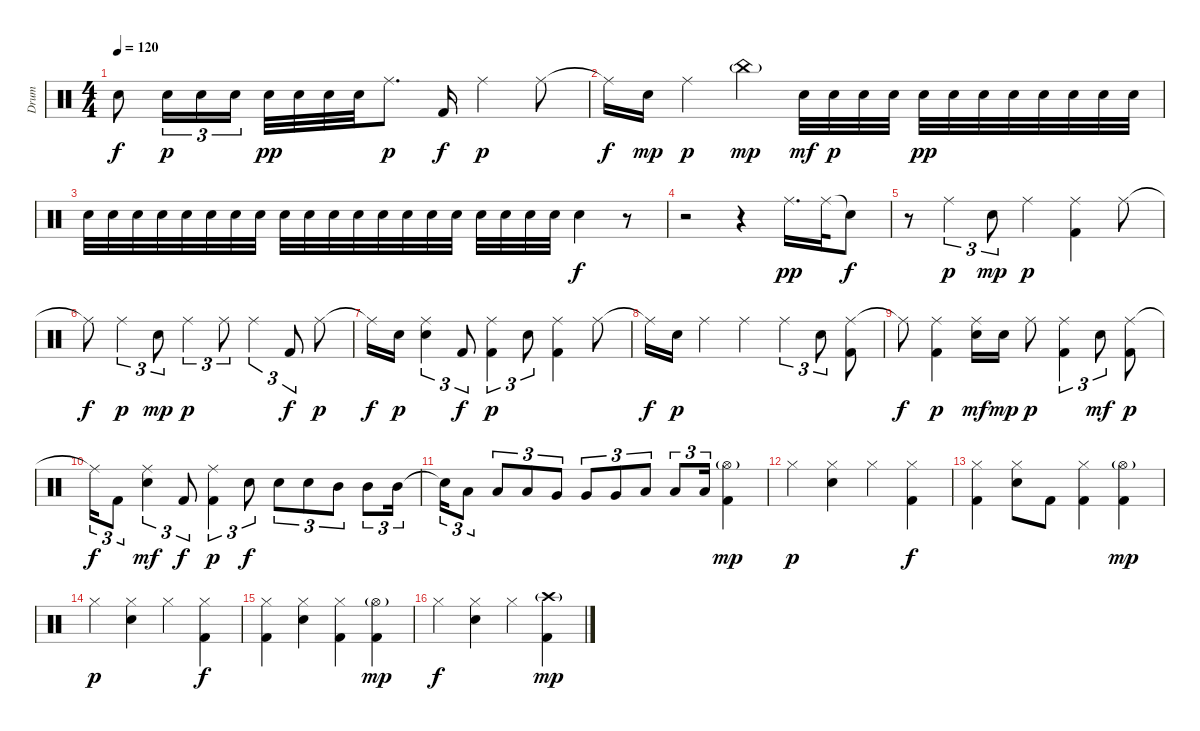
\track ("Drum" "Drum") {instrument percussion}
\staff {score}
\articulation defaults
\ts (4 4)
\tempo 120
\clef neutral
\ks c "Snare (hit)"{t}.8{dy f} "Electric Snare (hit)".16{tu (3 2) dy p} "Electric Snare (hit)".16{tu (3 2)} "Electric Snare (hit)".16{tu (3 2)} "Electric Snare (hit)".32{dy pp} "Electric Snare (hit)".32 "Electric Snare (hit)".32 "Electric Snare (hit)".32 "Ride (middle)".8{d dy p} "Kick (hit) 2".16{dy f} "Ride (middle)".4{dy p} "Ride (middle)".8
|
"Ride (middle)"{t}.16{dy f} "Electric Snare (hit)".16{dy mp} "Ride (middle)".4{dy p} "China (hit)"{g}.4{dy mp} "Electric Snare (hit)".32{dy mf} "Electric Snare (hit)".32{dy p} "Electric Snare (hit)".32 "Electric Snare (hit)".32 "Electric Snare (hit)".32{dy pp} "Electric Snare (hit)".32 "Electric Snare (hit)".32 "Electric Snare (hit)".32 "Electric Snare (hit)".32 "Electric Snare (hit)".32 "Electric Snare (hit)".32 "Electric Snare (hit)".32 |
"Electric Snare (hit)".32 "Electric Snare (hit)".32 "Electric Snare (hit)".32 "Electric Snare (hit)".32 "Electric Snare (hit)".32 "Electric Snare (hit)".32 "Electric Snare (hit)".32 "Electric Snare (hit)".32 "Electric Snare (hit)".32 "Electric Snare (hit)".32 "Electric Snare (hit)".32 "Electric Snare (hit)".32 "Electric Snare (hit)".32 "Electric Snare (hit)".32 "Electric Snare (hit)".32 "Electric Snare (hit)".32 "Electric Snare (hit)".32 "Electric Snare (hit)".32 "Electric Snare (hit)".32 "Electric Snare (hit)".32 "Electric Snare (hit)".4{dy f} r.8 |
r.2 r.4 "Ride (middle)".16{d dy pp} "Ride (middle)".32 "Snare (hit)"{t}.8{dy f} |
r.8 "Ride (middle)".4{tu (3 2) dy p} "Electric Snare (hit)".8{tu (3 2) dy mp} "Ride (middle)".4{dy p} ("Ride (middle)" "Kick (hit) 2").4 "Ride (middle)".8 |
"Ride (middle)"{t}.8{dy f} "Ride (middle)".4{tu (3 2) dy p} "Electric Snare (hit)".8{tu (3 2) dy mp} "Ride (middle)".4{tu (3 2) dy p} "Ride (middle)".8{tu (3 2)} "Ride (middle)".4{tu (3 2)} "Kick (hit) 2".8{tu (3 2) dy f} "Ride (middle)".8{dy p} |
"Ride (middle)"{t}.16{dy f} "Electric Snare (hit)".16{dy p} ("Ride (middle)" "Electric Snare (hit)").4{tu (3 2)} "Kick (hit) 2".8{tu (3 2) dy f} ("Ride (middle)" "Kick (hit) 2").4{tu (3 2) dy p} "Electric Snare (hit)".8{tu (3 2)} ("Ride (middle)" "Kick (hit) 2").4 "Ride (middle)".8 |
"Ride (middle)"{t}.16{dy f} "Electric Snare (hit)".16{dy p} "Ride (middle)".4 "Ride (middle)".4 "Ride (middle)".4{tu (3 2)} "Electric Snare (hit)".8{tu (3 2)} ("Ride (middle)" "Kick (hit) 2").8 |
"Ride (middle)"{t}.8{dy f} ("Ride (middle)" "Kick (hit) 2").4{dy p} ("Ride (middle)" "Electric Snare (hit)").16{dy mf} "Electric Snare (hit)".16{dy mp} "Ride (middle)".8{dy p} ("Ride (middle)" "Kick (hit) 2").4{tu (3 2)} "Electric Snare (hit)".8{tu (3 2) dy mf} ("Ride (middle)" "Kick (hit) 2").8{dy p} |
"Ride (middle)"{t}.16{tu (3 2) dy f} "Kick (hit) 2".8{tu (3 2)} ("Ride (middle)" "Electric Snare (hit)").4{tu (3 2) dy mf} "Kick (hit) 2".8{tu (3 2) dy f} ("Ride (middle)" "Kick (hit) 2").4{tu (3 2) dy p} "Electric Snare (hit)".8{tu (3 2) dy f} "Electric Snare (hit)".8{tu (3 2)} "Electric Snare (hit)".8{tu (3 2)} "Mid Tom (hit)".8{tu (3 2)} "Mid Tom (hit)".8{tu (3 2)} "Mid Tom (hit)".16{tu (3 2)} |
"Snare (hit)"{t}.16{tu (3 2)} "Low Tom (hit)".8{tu (3 2)} "Low Tom (hit)".8{tu (3 2)} "Low Tom (hit)".8{tu (3 2)} "Very Low Tom (hit)".8{tu (3 2)} "Very Low Tom (hit)".8{tu (3 2)} "Very Low Tom (hit)".8{tu (3 2)} "Low Floor Tom (hit)".8{tu (3 2)} "Low Floor Tom (hit)".8{tu (3 2)} "Low Floor Tom (hit)".16{tu (3 2)} ("Hi-Hat (open)"{g} "Kick (hit) 2").4{dy mp} |
"Hi-Hat (closed)".4{dy p} ("Hi-Hat (closed)" "Electric Snare (hit)").4 "Hi-Hat (closed)".4 ("Hi-Hat (closed)" "Kick (hit) 2").4{dy f} |
("Hi-Hat (closed)" "Kick (hit) 2").4 ("Hi-Hat (closed)" "Electric Snare (hit)").8 "Kick (hit) 2".8 ("Hi-Hat (closed)" "Kick (hit) 2").4 ("Hi-Hat (open)"{g} "Kick (hit) 2").4{dy mp} |
"Hi-Hat (closed)".4{dy p} ("Hi-Hat (closed)" "Electric Snare (hit)").4 "Hi-Hat (closed)".4 ("Hi-Hat (closed)" "Kick (hit) 2").4{dy f} |
("Hi-Hat (closed)" "Kick (hit) 2").4 ("Hi-Hat (closed)" "Electric Snare (hit)").4 ("Hi-Hat (closed)" "Kick (hit) 2").4 ("Hi-Hat (open)"{g} "Kick (hit) 2").4{dy mp} |
"Hi-Hat (closed)".4{dy f} ("Hi-Hat (closed)" "Electric Snare (hit)").4 "Hi-Hat (closed)".4 ("Crash high (hit)"{g} "Kick (hit) 2").4{dy mp}
